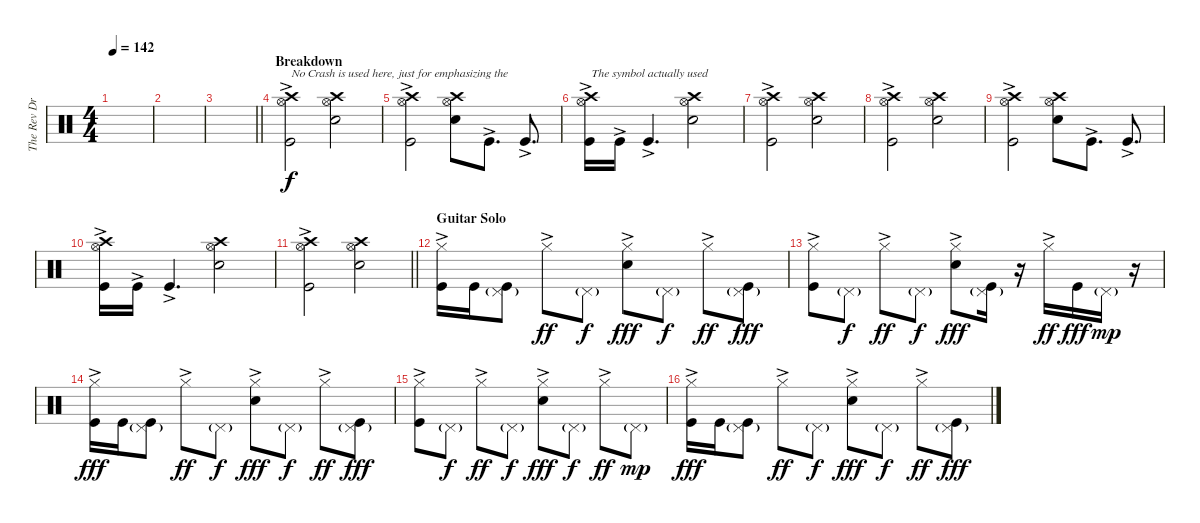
\track ("The Rev Drums" "The Rev Dr") {instrument percussion}
\staff {score}
\articulation defaults
\ts (4 4)
\tempo 142
\clef neutral
\ks c
|
|
\barLineRight lightlight
|
\section ("" "Breakdown")
("Hi-Hat (open)" "Crash high (hit)" "Kick (hit)"{ac}).2{txt "No Crash is used here, just for emphasizing the"} ("Hi-Hat (open)" "Crash high (hit)" "Electric Snare (hit)").2 |
("Hi-Hat (open)" "Crash high (hit)" "Kick (hit)"{ac}).2 ("Hi-Hat (open)" "Crash high (hit)" "Electric Snare (hit)").8 "Kick (hit)"{ac}.8{d} "Kick (hit)"{ac}.8{d} |
("Hi-Hat (open)" "Crash high (hit)" "Kick (hit)"{ac}).16{txt "The symbol actually used"} "Kick (hit)"{ac}.16 "Kick (hit)"{ac}.4{d} ("Hi-Hat (open)" "Crash high (hit)" "Electric Snare (hit)").2 |
("Hi-Hat (open)" "Crash high (hit)" "Kick (hit)"{ac}).2 ("Hi-Hat (open)" "Crash high (hit)" "Electric Snare (hit)").2 |
("Hi-Hat (open)" "Crash high (hit)" "Kick (hit)"{ac}).2 ("Hi-Hat (open)" "Crash high (hit)" "Electric Snare (hit)").2 |
("Hi-Hat (open)" "Crash high (hit)" "Kick (hit)"{ac}).2 ("Hi-Hat (open)" "Crash high (hit)" "Electric Snare (hit)").8 "Kick (hit)"{ac}.8{d} "Kick (hit)"{ac}.8{d} |
("Hi-Hat (open)" "Crash high (hit)" "Kick (hit)"{ac}).16 "Kick (hit)"{ac}.16 "Kick (hit)"{ac}.4{d} ("Hi-Hat (open)" "Crash high (hit)" "Electric Snare (hit)").2 |
\barLineRight lightlight
("Hi-Hat (open)" "Crash high (hit)" "Kick (hit)"{ac}).2 ("Hi-Hat (open)" "Crash high (hit)" "Electric Snare (hit)").2 |
\section ("" "Guitar Solo")
("Hi-Hat (closed)"{ac} "Kick (hit)").16 "Kick (hit)".16 ("Pedal Hi-Hat (hit)"{g} "Kick (hit)").8 "Hi-Hat (closed)"{ac}.8{dy ff} "Pedal Hi-Hat (hit)"{g}.8{dy f} ("Hi-Hat (closed)"{ac} "Electric Snare (hit)").8{dy fff} "Pedal Hi-Hat (hit)"{g}.8{dy f} "Hi-Hat (closed)"{ac}.8{dy ff} ("Pedal Hi-Hat (hit)"{g} "Kick (hit)").8{dy fff} |
("Hi-Hat (closed)"{ac} "Kick (hit)").8 "Pedal Hi-Hat (hit)"{g}.8{dy f} "Hi-Hat (closed)"{ac}.8{dy ff} "Pedal Hi-Hat (hit)"{g}.8{dy f} ("Hi-Hat (closed)"{ac} "Electric Snare (hit)").8{dy fff} ("Pedal Hi-Hat (hit)"{g} "Kick (hit)").16 r.16 "Hi-Hat (closed)"{ac}.16{dy ff} "Kick (hit)".16{dy fff} "Pedal Hi-Hat (hit)"{g}.16{dy mp} r.16 |
("Hi-Hat (closed)"{ac} "Kick (hit)").16{dy fff} "Kick (hit)".16 ("Pedal Hi-Hat (hit)"{g} "Kick (hit)").8 "Hi-Hat (closed)"{ac}.8{dy ff} "Pedal Hi-Hat (hit)"{g}.8{dy f} ("Hi-Hat (closed)"{ac} "Electric Snare (hit)").8{dy fff} "Pedal Hi-Hat (hit)"{g}.8{dy f} "Hi-Hat (closed)"{ac}.8{dy ff} ("Pedal Hi-Hat (hit)"{g} "Kick (hit)").8{dy fff} |
("Hi-Hat (closed)"{ac} "Kick (hit)").8 "Pedal Hi-Hat (hit)"{g}.8{dy f} "Hi-Hat (closed)"{ac}.8{dy ff} "Pedal Hi-Hat (hit)"{g}.8{dy f} ("Hi-Hat (closed)"{ac} "Electric Snare (hit)").8{dy fff} "Pedal Hi-Hat (hit)"{g}.8{dy f} "Hi-Hat (closed)"{ac}.8{dy ff} "Pedal Hi-Hat (hit)"{g}.8{dy mp} |
("Hi-Hat (closed)"{ac} "Kick (hit)").16{dy fff} "Kick (hit)".16 ("Pedal Hi-Hat (hit)"{g} "Kick (hit)").8 "Hi-Hat (closed)"{ac}.8{dy ff} "Pedal Hi-Hat (hit)"{g}.8{dy f} ("Hi-Hat (closed)"{ac} "Electric Snare (hit)").8{dy fff} "Pedal Hi-Hat (hit)"{g}.8{dy f} "Hi-Hat (closed)"{ac}.8{dy ff} ("Pedal Hi-Hat (hit)"{g} "Kick (hit)").8{dy fff}
